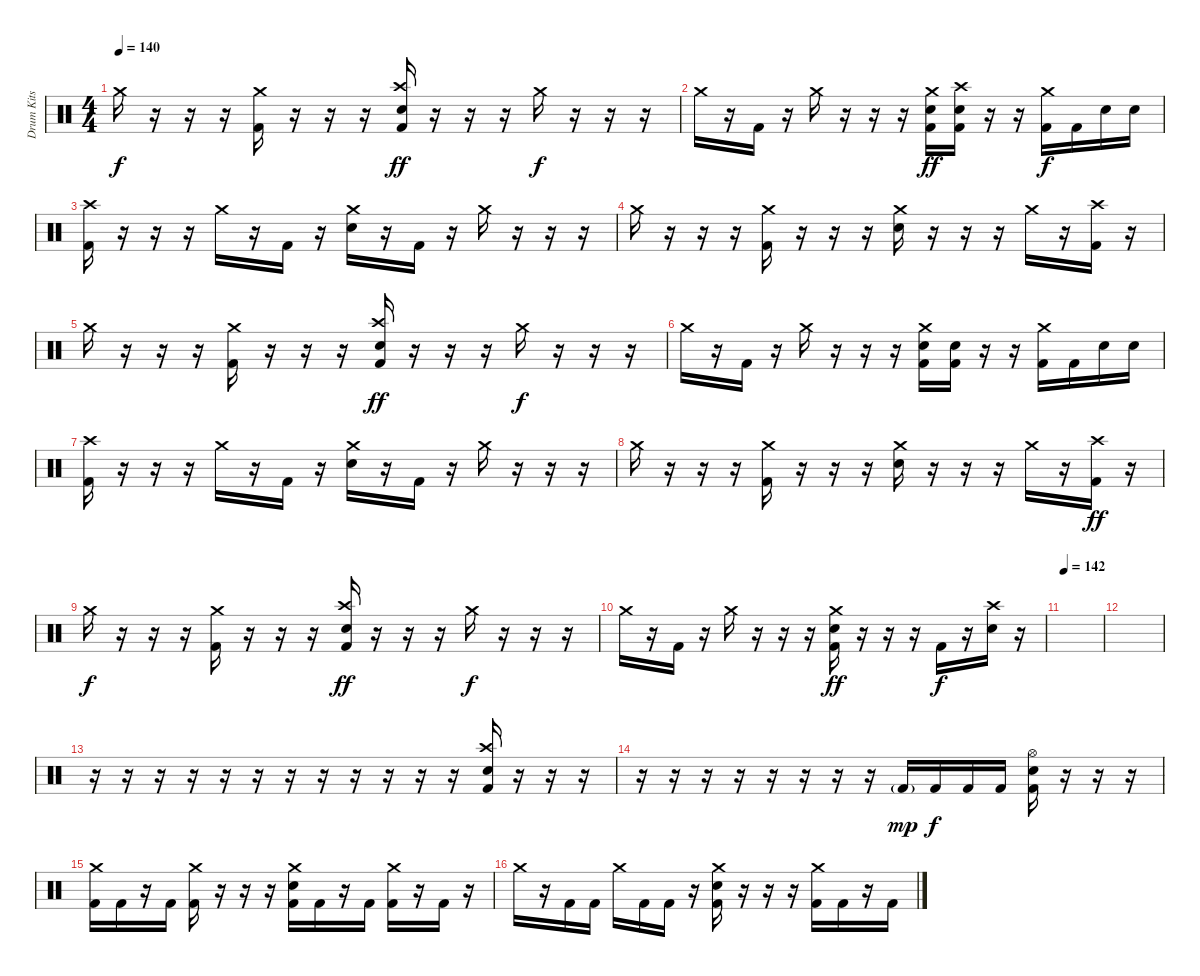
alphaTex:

\track ("Drum Kits" "Drum Kits") {instrument percussion}
\staff {score}
\articulation defaults
\ts (4 4)
\tempo 140
\clef neutral
\ks c "Crash medium (hit)".16{dy f}
r.16 r.16 r.16 ("Crash medium (hit)" "Kick (hit) 2").16 r.16 r.16 r.16 ("Crash high (hit)" "Electric Snare (hit)" "Kick (hit) 2").16{dy ff} r.16 r.16 r.16 "Crash medium (hit)".16{dy f} r.16 r.16 r.16 |
"Crash medium (hit)".16 r.16 "Kick (hit) 2".16 r.16 "Crash medium (hit)".16 r.16 r.16 r.16 ("Crash medium (hit)" "Electric Snare (hit)" "Kick (hit) 2").16{dy ff} ("Crash high (hit)" "Electric Snare (hit)" "Kick (hit) 2").16 r.16 r.16 ("Crash medium (hit)" "Kick (hit) 2").16{dy f} "Kick (hit) 2".16 "Electric Snare (hit)".16 "Electric Snare (hit)".16 |
("Crash high (hit)" "Kick (hit) 2").16 r.16 r.16 r.16 "Crash medium (hit)".16 r.16 "Kick (hit) 2".16 r.16 ("Crash medium (hit)" "Electric Snare (hit)").16 r.16 "Kick (hit) 2".16 r.16 "Crash medium (hit)".16 r.16 r.16 r.16 |
"Crash medium (hit)".16 r.16 r.16 r.16 ("Crash medium (hit)" "Kick (hit) 2").16 r.16 r.16 r.16 ("Crash medium (hit)" "Electric Snare (hit)").16 r.16 r.16 r.16 "Crash medium (hit)".16 r.16 ("Crash high (hit)" "Kick (hit) 2").16 r.16 |
"Crash medium (hit)".16 r.16 r.16 r.16 ("Crash medium (hit)" "Kick (hit) 2").16 r.16 r.16 r.16 ("Crash high (hit)" "Electric Snare (hit)" "Kick (hit) 2").16{dy ff} r.16 r.16 r.16 "Crash medium (hit)".16{dy f} r.16 r.16 r.16 |
"Crash medium (hit)".16 r.16 "Kick (hit) 2".16 r.16 "Crash medium (hit)".16 r.16 r.16 r.16 ("Crash medium (hit)" "Electric Snare (hit)" "Kick (hit) 2").16 ("Electric Snare (hit)" "Kick (hit) 2").16 r.16 r.16 ("Crash medium (hit)" "Kick (hit) 2").16 "Kick (hit) 2".16 "Electric Snare (hit)".16 "Electric Snare (hit)".16 |
("Crash high (hit)" "Kick (hit) 2").16 r.16 r.16 r.16 "Crash medium (hit)".16 r.16 "Kick (hit) 2".16 r.16 ("Crash medium (hit)" "Electric Snare (hit)").16 r.16 "Kick (hit) 2".16 r.16 "Crash medium (hit)".16 r.16 r.16 r.16 |
"Crash medium (hit)".16 r.16 r.16 r.16 ("Crash medium (hit)" "Kick (hit) 2").16 r.16 r.16 r.16 ("Crash medium (hit)" "Electric Snare (hit)").16 r.16 r.16 r.16 "Crash medium (hit)".16 r.16 ("Crash high (hit)" "Kick (hit) 2").16{dy ff} r.16 |
"Crash medium (hit)".16{dy f} r.16 r.16 r.16 ("Crash medium (hit)" "Kick (hit) 2").16 r.16 r.16 r.16 ("Crash high (hit)" "Electric Snare (hit)" "Kick (hit) 2").16{dy ff} r.16 r.16 r.16 "Crash medium (hit)".16{dy f} r.16 r.16 r.16 |
"Crash medium (hit)".16 r.16 "Kick (hit) 2".16 r.16 "Crash medium (hit)".16 r.16 r.16 r.16 ("Crash medium (hit)" "Electric Snare (hit)" "Kick (hit) 2").16{dy ff} r.16 r.16 r.16 "Kick (hit) 2".16{dy f} r.16 ("Crash high (hit)" "Electric Snare (hit)").16 r.16 |
\tempo 142
|
|
r.16 r.16 r.16 r.16 r.16 r.16 r.16 r.16 r.16 r.16 r.16 r.16 ("Crash high (hit)" "Electric Snare (hit)" "Kick (hit) 2").16 r.16 r.16 r.16 |
r.16 r.16 r.16 r.16 r.16 r.16 r.16 r.16 "Kick (hit) 2"{g}.16{dy mp} "Kick (hit) 2".16{dy f} "Kick (hit) 2".16 "Kick (hit) 2".16 ("Hi-Hat (open)" "Electric Snare (hit)" "Kick (hit) 2").16 r.16 r.16 r.16 |
("Crash medium (hit)" "Kick (hit) 2").16 "Kick (hit) 2".16 r.16 "Kick (hit) 2".16 ("Crash medium (hit)" "Kick (hit) 2").16 r.16 r.16 r.16 ("Crash medium (hit)" "Electric Snare (hit)" "Kick (hit) 2").16 "Kick (hit) 2".16 r.16 "Kick (hit) 2".16 ("Crash medium (hit)" "Kick (hit) 2").16 r.16 "Kick (hit) 2".16 r.16 |
"Crash medium (hit)".16 r.16 "Kick (hit) 2".16 "Kick (hit) 2".16 "Crash medium (hit)".16 "Kick (hit) 2".16 "Kick (hit) 2".16 r.16 ("Crash medium (hit)" "Electric Snare (hit)" "Kick (hit) 2").16 r.16 r.16 r.16 ("Crash medium (hit)" "Kick (hit) 2").16 "Kick (hit) 2".16 r.16 "Kick (hit) 2".16
